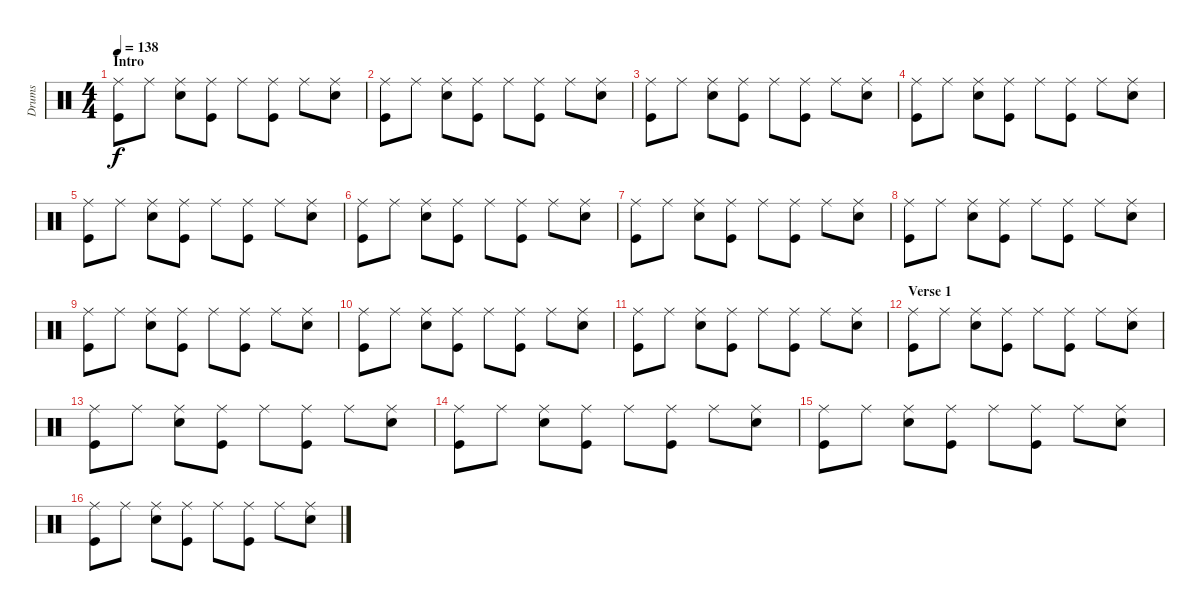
\track ("Drums" "Drums") {instrument percussion}
\staff {score}
\articulation defaults
\ts (4 4)
\section ("" "Intro")
\tempo 138
\clef neutral
\ks c
("Ride (middle)" "Kick (hit)").8{dy f} "Ride (middle)".8 ("Ride (middle)" "Snare (hit) 2").8 ("Ride (middle)" "Kick (hit)").8 "Ride (middle)".8 ("Ride (middle)" "Kick (hit)").8 "Ride (middle)".8 ("Ride (middle)" "Snare (hit) 2").8 |
("Ride (middle)" "Kick (hit)").8 "Ride (middle)".8 ("Ride (middle)" "Snare (hit) 2").8 ("Ride (middle)" "Kick (hit)").8 "Ride (middle)".8 ("Ride (middle)" "Kick (hit)").8 "Ride (middle)".8 ("Ride (middle)" "Snare (hit) 2").8 |
("Ride (middle)" "Kick (hit)").8 "Ride (middle)".8 ("Ride (middle)" "Snare (hit) 2").8 ("Ride (middle)" "Kick (hit)").8 "Ride (middle)".8 ("Ride (middle)" "Kick (hit)").8 "Ride (middle)".8 ("Ride (middle)" "Snare (hit) 2").8 |
("Ride (middle)" "Kick (hit)").8 "Ride (middle)".8 ("Ride (middle)" "Snare (hit) 2").8 ("Ride (middle)" "Kick (hit)").8 "Ride (middle)".8 ("Ride (middle)" "Kick (hit)").8 "Ride (middle)".8 ("Ride (middle)" "Snare (hit) 2").8 |
("Ride (middle)" "Kick (hit)").8 "Ride (middle)".8 ("Ride (middle)" "Snare (hit) 2").8 ("Ride (middle)" "Kick (hit)").8 "Ride (middle)".8 ("Ride (middle)" "Kick (hit)").8 "Ride (middle)".8 ("Ride (middle)" "Snare (hit) 2").8 |
("Ride (middle)" "Kick (hit)").8 "Ride (middle)".8 ("Ride (middle)" "Snare (hit) 2").8 ("Ride (middle)" "Kick (hit)").8 "Ride (middle)".8 ("Ride (middle)" "Kick (hit)").8 "Ride (middle)".8 ("Ride (middle)" "Snare (hit) 2").8 |
("Ride (middle)" "Kick (hit)").8 "Ride (middle)".8 ("Ride (middle)" "Snare (hit) 2").8 ("Ride (middle)" "Kick (hit)").8 "Ride (middle)".8 ("Ride (middle)" "Kick (hit)").8 "Ride (middle)".8 ("Ride (middle)" "Snare (hit) 2").8 |
("Ride (middle)" "Kick (hit)").8 "Ride (middle)".8 ("Ride (middle)" "Snare (hit) 2").8 ("Ride (middle)" "Kick (hit)").8 "Ride (middle)".8 ("Ride (middle)" "Kick (hit)").8 "Ride (middle)".8 ("Ride (middle)" "Snare (hit) 2").8 |
("Ride (middle)" "Kick (hit)").8 "Ride (middle)".8 ("Ride (middle)" "Snare (hit) 2").8 ("Ride (middle)" "Kick (hit)").8 "Ride (middle)".8 ("Ride (middle)" "Kick (hit)").8 "Ride (middle)".8 ("Ride (middle)" "Snare (hit) 2").8 |
("Ride (middle)" "Kick (hit)").8 "Ride (middle)".8 ("Ride (middle)" "Snare (hit) 2").8 ("Ride (middle)" "Kick (hit)").8 "Ride (middle)".8 ("Ride (middle)" "Kick (hit)").8 "Ride (middle)".8 ("Ride (middle)" "Snare (hit) 2").8 |
("Ride (middle)" "Kick (hit)").8 "Ride (middle)".8 ("Ride (middle)" "Snare (hit) 2").8 ("Ride (middle)" "Kick (hit)").8 "Ride (middle)".8 ("Ride (middle)" "Kick (hit)").8 "Ride (middle)".8 ("Ride (middle)" "Snare (hit) 2").8 |
\section ("" "Verse 1")
("Ride (middle)" "Kick (hit)").8 "Ride (middle)".8 ("Ride (middle)" "Snare (hit) 2").8 ("Ride (middle)" "Kick (hit)").8 "Ride (middle)".8 ("Ride (middle)" "Kick (hit)").8 "Ride (middle)".8 ("Ride (middle)" "Snare (hit) 2").8 |
("Ride (middle)" "Kick (hit)").8 "Ride (middle)".8 ("Ride (middle)" "Snare (hit) 2").8 ("Ride (middle)" "Kick (hit)").8 "Ride (middle)".8 ("Ride (middle)" "Kick (hit)").8 "Ride (middle)".8 ("Ride (middle)" "Snare (hit) 2").8 |
("Ride (middle)" "Kick (hit)").8 "Ride (middle)".8 ("Ride (middle)" "Snare (hit) 2").8 ("Ride (middle)" "Kick (hit)").8 "Ride (middle)".8 ("Ride (middle)" "Kick (hit)").8 "Ride (middle)".8 ("Ride (middle)" "Snare (hit) 2").8 |
("Ride (middle)" "Kick (hit)").8 "Ride (middle)".8 ("Ride (middle)" "Snare (hit) 2").8 ("Ride (middle)" "Kick (hit)").8 "Ride (middle)".8 ("Ride (middle)" "Kick (hit)").8 "Ride (middle)".8 ("Ride (middle)" "Snare (hit) 2").8 |
("Ride (middle)" "Kick (hit)").8 "Ride (middle)".8 ("Ride (middle)" "Snare (hit) 2").8 ("Ride (middle)" "Kick (hit)").8 "Ride (middle)".8 ("Ride (middle)" "Kick (hit)").8 "Ride (middle)".8 ("Ride (middle)" "Snare (hit) 2").8
